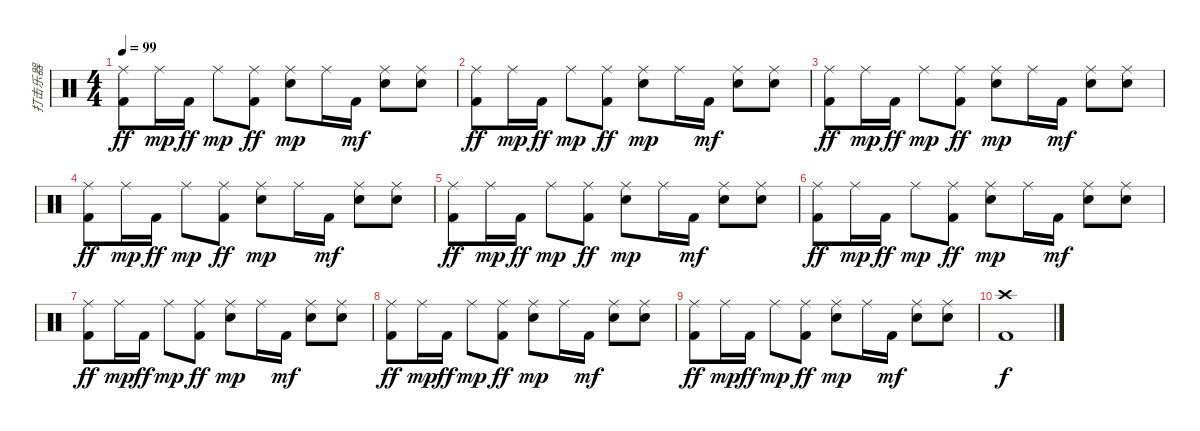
\track ("打击乐器" "打击乐器") {instrument percussion}
\staff {score}
\articulation defaults
\ts (4 4)
\tempo 99
\clef neutral
\ks c
("Ride (middle)" "Kick (hit) 2").8{dy ff} "Ride (middle)".16{dy mp} "Kick (hit) 2".16{dy ff} "Ride (middle)".8{dy mp} ("Ride (middle)" "Kick (hit) 2").8{dy ff} ("Ride (middle)" "Snare (hit) 2").8{dy mp} "Ride (middle)".16 "Kick (hit) 2".16{dy mf} ("Ride (middle)" "Snare (hit) 2").8 ("Ride (middle)" "Snare (hit) 2").8 |
("Ride (middle)" "Kick (hit) 2").8{dy ff} "Ride (middle)".16{dy mp} "Kick (hit) 2".16{dy ff} "Ride (middle)".8{dy mp} ("Ride (middle)" "Kick (hit) 2").8{dy ff} ("Ride (middle)" "Snare (hit) 2").8{dy mp} "Ride (middle)".16 "Kick (hit) 2".16{dy mf} ("Ride (middle)" "Snare (hit) 2").8 ("Ride (middle)" "Snare (hit) 2").8 |
("Ride (middle)" "Kick (hit) 2").8{dy ff} "Ride (middle)".16{dy mp} "Kick (hit) 2".16{dy ff} "Ride (middle)".8{dy mp} ("Ride (middle)" "Kick (hit) 2").8{dy ff} ("Ride (middle)" "Snare (hit) 2").8{dy mp} "Ride (middle)".16 "Kick (hit) 2".16{dy mf} ("Ride (middle)" "Snare (hit) 2").8 ("Ride (middle)" "Snare (hit) 2").8 |
("Ride (middle)" "Kick (hit) 2").8{dy ff} "Ride (middle)".16{dy mp} "Kick (hit) 2".16{dy ff} "Ride (middle)".8{dy mp} ("Ride (middle)" "Kick (hit) 2").8{dy ff} ("Ride (middle)" "Snare (hit) 2").8{dy mp} "Ride (middle)".16 "Kick (hit) 2".16{dy mf} ("Ride (middle)" "Snare (hit) 2").8 ("Ride (middle)" "Snare (hit) 2").8 |
("Ride (middle)" "Kick (hit) 2").8{dy ff} "Ride (middle)".16{dy mp} "Kick (hit) 2".16{dy ff} "Ride (middle)".8{dy mp} ("Ride (middle)" "Kick (hit) 2").8{dy ff} ("Ride (middle)" "Snare (hit) 2").8{dy mp} "Ride (middle)".16 "Kick (hit) 2".16{dy mf} ("Ride (middle)" "Snare (hit) 2").8 ("Ride (middle)" "Snare (hit) 2").8 |
("Ride (middle)" "Kick (hit) 2").8{dy ff} "Ride (middle)".16{dy mp} "Kick (hit) 2".16{dy ff} "Ride (middle)".8{dy mp} ("Ride (middle)" "Kick (hit) 2").8{dy ff} ("Ride (middle)" "Snare (hit) 2").8{dy mp} "Ride (middle)".16 "Kick (hit) 2".16{dy mf} ("Ride (middle)" "Snare (hit) 2").8 ("Ride (middle)" "Snare (hit) 2").8 |
("Ride (middle)" "Kick (hit) 2").8{dy ff} "Ride (middle)".16{dy mp} "Kick (hit) 2".16{dy ff} "Ride (middle)".8{dy mp} ("Ride (middle)" "Kick (hit) 2").8{dy ff} ("Ride (middle)" "Snare (hit) 2").8{dy mp} "Ride (middle)".16 "Kick (hit) 2".16{dy mf} ("Ride (middle)" "Snare (hit) 2").8 ("Ride (middle)" "Snare (hit) 2").8 |
("Ride (middle)" "Kick (hit) 2").8{dy ff} "Ride (middle)".16{dy mp} "Kick (hit) 2".16{dy ff} "Ride (middle)".8{dy mp} ("Ride (middle)" "Kick (hit) 2").8{dy ff} ("Ride (middle)" "Snare (hit) 2").8{dy mp} "Ride (middle)".16 "Kick (hit) 2".16{dy mf} ("Ride (middle)" "Snare (hit) 2").8 ("Ride (middle)" "Snare (hit) 2").8 |
("Ride (middle)" "Kick (hit) 2").8{dy ff} "Ride (middle)".16{dy mp} "Kick (hit) 2".16{dy ff} "Ride (middle)".8{dy mp} ("Ride (middle)" "Kick (hit) 2").8{dy ff} ("Ride (middle)" "Snare (hit) 2").8{dy mp} "Ride (middle)".16 "Kick (hit) 2".16{dy mf} ("Ride (middle)" "Snare (hit) 2").8 ("Ride (middle)" "Snare (hit) 2").8 |
("Crash high (hit)" "Kick (hit) 2").1{dy f}
